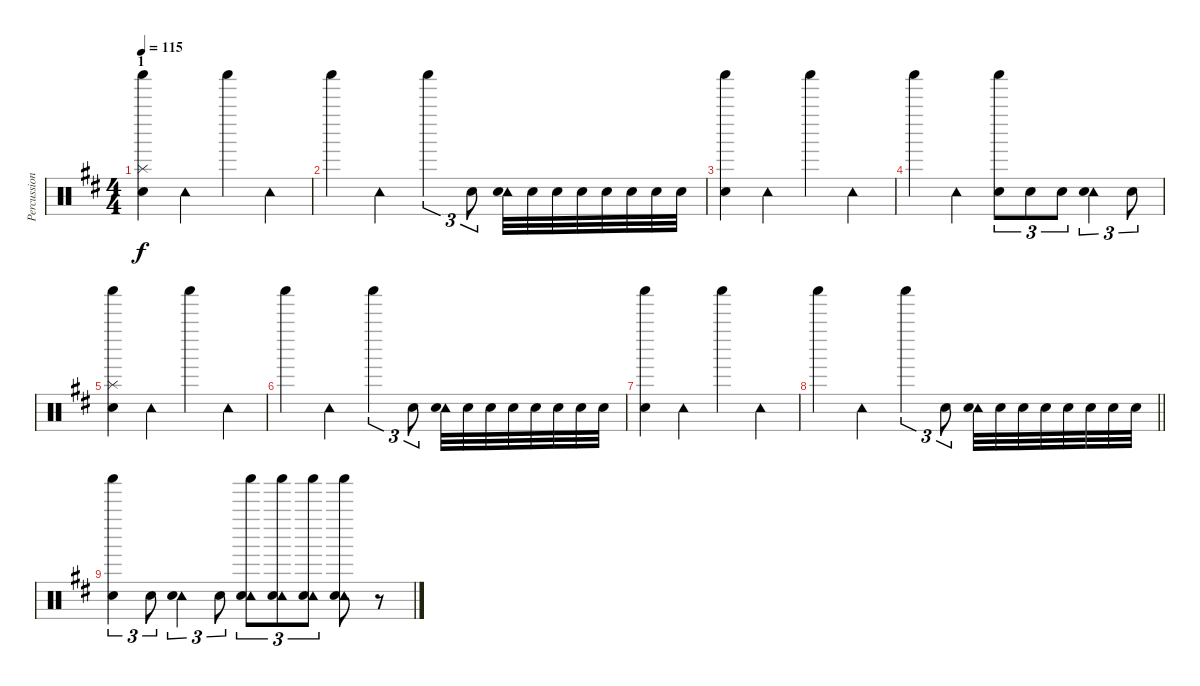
\track ("Percussion" "Percussion") {instrument percussion}
\staff {score}
\articulation defaults
\ts (4 4)
\section ("" "1")
\tempo 115
\clef neutral
\ks d
("Splash (hit)" "Shaker (hit)" "Snare (hit) 2").4{dy f} "Tambourine (hit)".4 "Shaker (hit)".4 "Tambourine (hit)".4 |
"Shaker (hit)".4 "Tambourine (hit)".4 "Shaker (hit)".4{tu (3 2)} "Snare (hit) 2".8{tu (3 2)} ("Tambourine (hit)" "Snare (hit) 2").32 "Snare (hit) 2".32 "Snare (hit) 2".32 "Snare (hit) 2".32 "Snare (hit) 2".32 "Snare (hit) 2".32 "Snare (hit) 2".32 "Snare (hit) 2".32 |
("Shaker (hit)" "Snare (hit) 2").4 "Tambourine (hit)".4 "Shaker (hit)".4 "Tambourine (hit)".4 |
"Shaker (hit)".4 "Tambourine (hit)".4 ("Shaker (hit)" "Snare (hit) 2").8{tu (3 2)} "Snare (hit) 2".8{tu (3 2)} "Snare (hit) 2".8{tu (3 2)} ("Tambourine (hit)" "Snare (hit) 2").4{tu (3 2)} "Snare (hit) 2".8{tu (3 2)} |
("Splash (hit)" "Shaker (hit)" "Snare (hit) 2").4 "Tambourine (hit)".4 "Shaker (hit)".4 "Tambourine (hit)".4 |
"Shaker (hit)".4 "Tambourine (hit)".4 "Shaker (hit)".4{tu (3 2)} "Snare (hit) 2".8{tu (3 2)} ("Tambourine (hit)" "Snare (hit) 2").32 "Snare (hit) 2".32 "Snare (hit) 2".32 "Snare (hit) 2".32 "Snare (hit) 2".32 "Snare (hit) 2".32 "Snare (hit) 2".32 "Snare (hit) 2".32 |
("Shaker (hit)" "Snare (hit) 2").4 "Tambourine (hit)".4 "Shaker (hit)".4 "Tambourine (hit)".4 |
\barLineRight lightlight "Shaker (hit)".4 "Tambourine (hit)".4 "Shaker (hit)".4{tu (3 2)} "Snare (hit) 2".8{tu (3 2)}
("Tambourine (hit)" "Snare (hit) 2").32 "Snare (hit) 2".32 "Snare (hit) 2".32 "Snare (hit) 2".32 "Snare (hit) 2".32 "Snare (hit) 2".32 "Snare (hit) 2".32 "Snare (hit) 2".32 |
("Shaker (hit)" "Snare (hit) 2").4{tu (3 2)} "Snare (hit) 2".8{tu (3 2)} ("Tambourine (hit)" "Snare (hit) 2").4{tu (3 2)} "Snare (hit) 2".8{tu (3 2)} ("Tambourine (hit)" "Shaker (hit)" "Snare (hit) 2").8{tu (3 2)} ("Tambourine (hit)" "Shaker (hit)" "Snare (hit) 2").8{tu (3 2)} ("Tambourine (hit)" "Shaker (hit)" "Snare (hit) 2").8{tu (3 2)} ("Tambourine (hit)" "Shaker (hit)" "Snare (hit) 2").8 r.8
